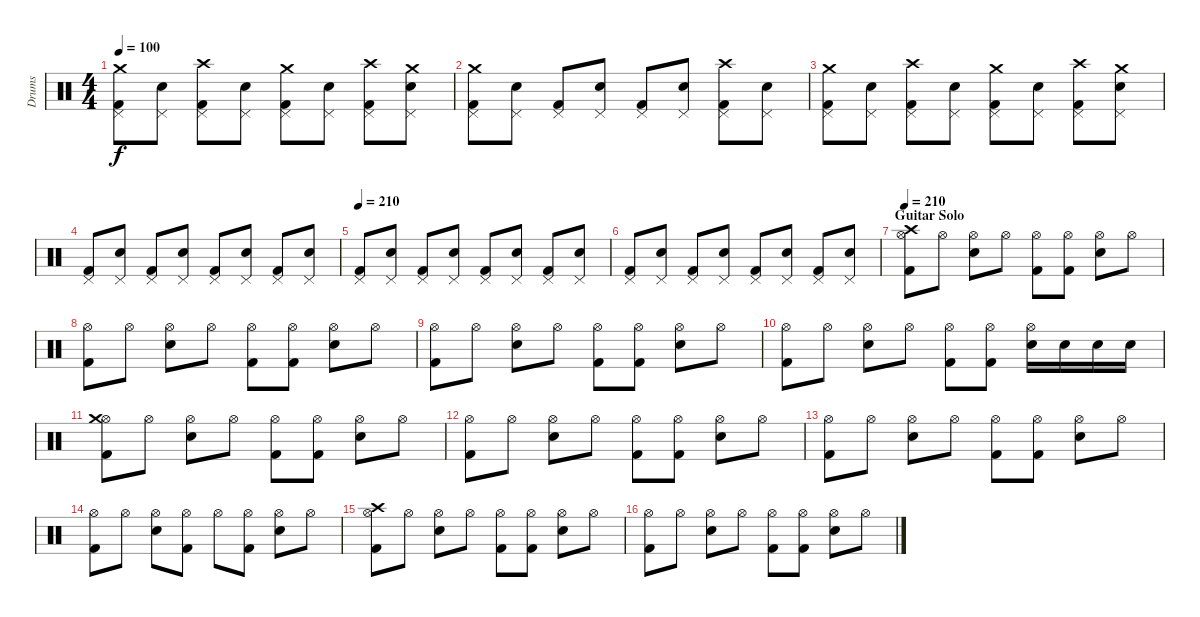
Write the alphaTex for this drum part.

\track ("Drums" "Drums") {instrument percussion}
\staff {score}
\articulation defaults
\ts (4 4)
\tempo 100
\clef neutral
\ks c
("Crash medium (hit)" "Pedal Hi-Hat (hit)" "Kick (hit) 2").8{dy f} ("Pedal Hi-Hat (hit)" "Electric Snare (hit)").8 ("Crash high (hit)" "Pedal Hi-Hat (hit)" "Kick (hit) 2").8 ("Pedal Hi-Hat (hit)" "Electric Snare (hit)").8 ("Crash medium (hit)" "Pedal Hi-Hat (hit)" "Kick (hit) 2").8 ("Pedal Hi-Hat (hit)" "Electric Snare (hit)").8 ("Crash high (hit)" "Pedal Hi-Hat (hit)" "Kick (hit) 2").8 ("Crash medium (hit)" "Pedal Hi-Hat (hit)" "Electric Snare (hit)").8 |
("Crash medium (hit)" "Pedal Hi-Hat (hit)" "Kick (hit) 2").8 ("Pedal Hi-Hat (hit)" "Electric Snare (hit)").8 ("Pedal Hi-Hat (hit)" "Kick (hit) 2").8 ("Pedal Hi-Hat (hit)" "Electric Snare (hit)").8 ("Pedal Hi-Hat (hit)" "Kick (hit) 2").8 ("Pedal Hi-Hat (hit)" "Electric Snare (hit)").8 ("Crash high (hit)" "Pedal Hi-Hat (hit)" "Kick (hit) 2").8 ("Pedal Hi-Hat (hit)" "Electric Snare (hit)").8 |
("Crash medium (hit)" "Pedal Hi-Hat (hit)" "Kick (hit) 2").8 ("Pedal Hi-Hat (hit)" "Electric Snare (hit)").8 ("Crash high (hit)" "Pedal Hi-Hat (hit)" "Kick (hit) 2").8 ("Pedal Hi-Hat (hit)" "Electric Snare (hit)").8 ("Crash medium (hit)" "Pedal Hi-Hat (hit)" "Kick (hit) 2").8 ("Pedal Hi-Hat (hit)" "Electric Snare (hit)").8 ("Crash high (hit)" "Pedal Hi-Hat (hit)" "Kick (hit) 2").8 ("Crash medium (hit)" "Pedal Hi-Hat (hit)" "Electric Snare (hit)").8 |
("Pedal Hi-Hat (hit)" "Kick (hit) 2").8 ("Pedal Hi-Hat (hit)" "Electric Snare (hit)").8 ("Pedal Hi-Hat (hit)" "Kick (hit) 2").8 ("Pedal Hi-Hat (hit)" "Electric Snare (hit)").8 ("Pedal Hi-Hat (hit)" "Kick (hit) 2").8 ("Pedal Hi-Hat (hit)" "Electric Snare (hit)").8 ("Pedal Hi-Hat (hit)" "Kick (hit) 2").8 ("Pedal Hi-Hat (hit)" "Electric Snare (hit)").8 |
\tempo 210
("Pedal Hi-Hat (hit)" "Kick (hit) 2").8 ("Pedal Hi-Hat (hit)" "Electric Snare (hit)").8 ("Pedal Hi-Hat (hit)" "Kick (hit) 2").8 ("Pedal Hi-Hat (hit)" "Electric Snare (hit)").8 ("Pedal Hi-Hat (hit)" "Kick (hit) 2").8 ("Pedal Hi-Hat (hit)" "Electric Snare (hit)").8 ("Pedal Hi-Hat (hit)" "Kick (hit) 2").8 ("Pedal Hi-Hat (hit)" "Electric Snare (hit)").8 |
("Pedal Hi-Hat (hit)" "Kick (hit) 2").8 ("Pedal Hi-Hat (hit)" "Electric Snare (hit)").8 ("Pedal Hi-Hat (hit)" "Kick (hit) 2").8 ("Pedal Hi-Hat (hit)" "Electric Snare (hit)").8 ("Pedal Hi-Hat (hit)" "Kick (hit) 2").8 ("Pedal Hi-Hat (hit)" "Electric Snare (hit)").8 ("Pedal Hi-Hat (hit)" "Kick (hit) 2").8 ("Pedal Hi-Hat (hit)" "Electric Snare (hit)").8 |
\section ("" "Guitar Solo")
\tempo 210
("Hi-Hat (open)" "Crash high (hit)" "Kick (hit) 2").8 "Hi-Hat (open)".8 ("Hi-Hat (open)" "Electric Snare (hit)").8 "Hi-Hat (open)".8 ("Hi-Hat (open)" "Kick (hit) 2").8 ("Hi-Hat (open)" "Kick (hit) 2").8 ("Hi-Hat (open)" "Electric Snare (hit)").8 "Hi-Hat (open)".8 |
("Hi-Hat (open)" "Kick (hit) 2").8 "Hi-Hat (open)".8 ("Hi-Hat (open)" "Electric Snare (hit)").8 "Hi-Hat (open)".8 ("Hi-Hat (open)" "Kick (hit) 2").8 ("Hi-Hat (open)" "Kick (hit) 2").8 ("Hi-Hat (open)" "Electric Snare (hit)").8 "Hi-Hat (open)".8 |
("Hi-Hat (open)" "Kick (hit) 2").8 "Hi-Hat (open)".8 ("Hi-Hat (open)" "Electric Snare (hit)").8 "Hi-Hat (open)".8 ("Hi-Hat (open)" "Kick (hit) 2").8 ("Hi-Hat (open)" "Kick (hit) 2").8 ("Hi-Hat (open)" "Electric Snare (hit)").8 "Hi-Hat (open)".8 |
("Hi-Hat (open)" "Kick (hit) 2").8 "Hi-Hat (open)".8 ("Hi-Hat (open)" "Electric Snare (hit)").8 "Hi-Hat (open)".8 ("Hi-Hat (open)" "Kick (hit) 2").8 ("Hi-Hat (open)" "Kick (hit) 2").8 ("Hi-Hat (open)" "Electric Snare (hit)").16 "Electric Snare (hit)".16 "Electric Snare (hit)".16 "Electric Snare (hit)".16 |
("Hi-Hat (open)" "Crash medium (hit)" "Kick (hit) 2").8 "Hi-Hat (open)".8 ("Hi-Hat (open)" "Electric Snare (hit)").8 "Hi-Hat (open)".8 ("Hi-Hat (open)" "Kick (hit) 2").8 ("Hi-Hat (open)" "Kick (hit) 2").8 ("Hi-Hat (open)" "Electric Snare (hit)").8 "Hi-Hat (open)".8 |
("Hi-Hat (open)" "Kick (hit) 2").8 "Hi-Hat (open)".8 ("Hi-Hat (open)" "Electric Snare (hit)").8 "Hi-Hat (open)".8 ("Hi-Hat (open)" "Kick (hit) 2").8 ("Hi-Hat (open)" "Kick (hit) 2").8 ("Hi-Hat (open)" "Electric Snare (hit)").8 "Hi-Hat (open)".8 |
("Hi-Hat (open)" "Kick (hit) 2").8 "Hi-Hat (open)".8 ("Hi-Hat (open)" "Electric Snare (hit)").8 "Hi-Hat (open)".8 ("Hi-Hat (open)" "Kick (hit) 2").8 ("Hi-Hat (open)" "Kick (hit) 2").8 ("Hi-Hat (open)" "Electric Snare (hit)").8 "Hi-Hat (open)".8 |
("Hi-Hat (open)" "Kick (hit) 2").8 "Hi-Hat (open)".8 ("Hi-Hat (open)" "Electric Snare (hit)").8 ("Hi-Hat (open)" "Kick (hit) 2").8 "Hi-Hat (open)".8 ("Hi-Hat (open)" "Kick (hit) 2").8 ("Hi-Hat (open)" "Electric Snare (hit)").8 "Hi-Hat (open)".8 |
("Hi-Hat (open)" "Crash high (hit)" "Kick (hit) 2").8 "Hi-Hat (open)".8 ("Hi-Hat (open)" "Electric Snare (hit)").8 "Hi-Hat (open)".8 ("Hi-Hat (open)" "Kick (hit) 2").8 ("Hi-Hat (open)" "Kick (hit) 2").8 ("Hi-Hat (open)" "Electric Snare (hit)").8 "Hi-Hat (open)".8 |
("Hi-Hat (open)" "Kick (hit) 2").8 "Hi-Hat (open)".8 ("Hi-Hat (open)" "Electric Snare (hit)").8 "Hi-Hat (open)".8 ("Hi-Hat (open)" "Kick (hit) 2").8 ("Hi-Hat (open)" "Kick (hit) 2").8 ("Hi-Hat (open)" "Electric Snare (hit)").8 "Hi-Hat (open)".8
